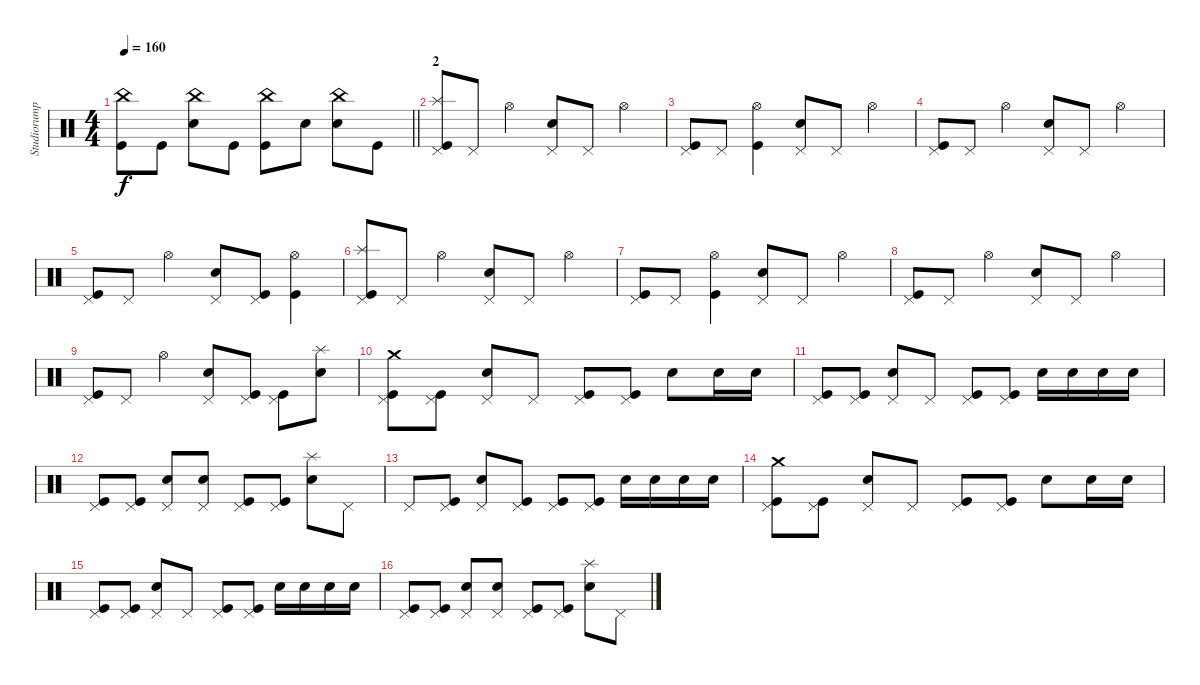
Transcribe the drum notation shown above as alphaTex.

\track ("Studiorumpali" "Studiorump") {instrument percussion}
\staff {score}
\articulation defaults
\ts (4 4)
\tempo 160
\clef neutral
\barLineRight lightlight
\ks c
("China (hit)" "Kick (hit)").8{dy f} "Kick (hit)".8 ("China (hit)" "Snare (hit) 2").8 "Kick (hit)".8 ("China (hit)" "Kick (hit)").8 "Snare (hit) 2".8 ("China (hit)" "Snare (hit) 2").8 "Kick (hit)".8 |
\section ("" "2")
("Splash (hit)" "Pedal Hi-Hat (hit)" "Kick (hit)").8 "Pedal Hi-Hat (hit)".8 "Hi-Hat (open)".4 ("Pedal Hi-Hat (hit)" "Snare (hit) 2").8 "Pedal Hi-Hat (hit)".8 "Hi-Hat (open)".4 |
("Pedal Hi-Hat (hit)" "Kick (hit)").8 "Pedal Hi-Hat (hit)".8 ("Hi-Hat (open)" "Kick (hit)").4 ("Pedal Hi-Hat (hit)" "Snare (hit) 2").8 "Pedal Hi-Hat (hit)".8 "Hi-Hat (open)".4 |
("Pedal Hi-Hat (hit)" "Kick (hit)").8 "Pedal Hi-Hat (hit)".8 "Hi-Hat (open)".4 ("Pedal Hi-Hat (hit)" "Snare (hit) 2").8 "Pedal Hi-Hat (hit)".8 "Hi-Hat (open)".4 |
("Pedal Hi-Hat (hit)" "Kick (hit)").8 "Pedal Hi-Hat (hit)".8 "Hi-Hat (open)".4 ("Pedal Hi-Hat (hit)" "Snare (hit) 2").8 ("Pedal Hi-Hat (hit)" "Kick (hit)").8 ("Hi-Hat (open)" "Kick (hit)").4 |
("Splash (hit)" "Pedal Hi-Hat (hit)" "Kick (hit)").8 "Pedal Hi-Hat (hit)".8 "Hi-Hat (open)".4 ("Pedal Hi-Hat (hit)" "Snare (hit) 2").8 "Pedal Hi-Hat (hit)".8 "Hi-Hat (open)".4 |
("Pedal Hi-Hat (hit)" "Kick (hit)").8 "Pedal Hi-Hat (hit)".8 ("Hi-Hat (open)" "Kick (hit)").4 ("Pedal Hi-Hat (hit)" "Snare (hit) 2").8 "Pedal Hi-Hat (hit)".8 "Hi-Hat (open)".4 |
("Pedal Hi-Hat (hit)" "Kick (hit)").8 "Pedal Hi-Hat (hit)".8 "Hi-Hat (open)".4 ("Pedal Hi-Hat (hit)" "Snare (hit) 2").8 "Pedal Hi-Hat (hit)".8 "Hi-Hat (open)".4 |
("Pedal Hi-Hat (hit)" "Kick (hit)").8 "Pedal Hi-Hat (hit)".8 "Hi-Hat (open)".4 ("Pedal Hi-Hat (hit)" "Snare (hit) 2").8 ("Pedal Hi-Hat (hit)" "Kick (hit)").8 ("Pedal Hi-Hat (hit)" "Kick (hit)").8 ("Splash (hit)" "Snare (hit) 2").8 |
("Crash medium (hit)" "Pedal Hi-Hat (hit)" "Kick (hit)").8 ("Pedal Hi-Hat (hit)" "Kick (hit)").8 ("Pedal Hi-Hat (hit)" "Snare (hit) 2").8 "Pedal Hi-Hat (hit)".8 ("Pedal Hi-Hat (hit)" "Kick (hit)").8 ("Pedal Hi-Hat (hit)" "Kick (hit)").8 "Snare (hit) 2".8 "Snare (hit) 2".16 "Snare (hit) 2".16 |
("Pedal Hi-Hat (hit)" "Kick (hit)").8 ("Pedal Hi-Hat (hit)" "Kick (hit)").8 ("Pedal Hi-Hat (hit)" "Snare (hit) 2").8 "Pedal Hi-Hat (hit)".8 ("Pedal Hi-Hat (hit)" "Kick (hit)").8 ("Pedal Hi-Hat (hit)" "Kick (hit)").8 "Snare (hit) 2".16 "Snare (hit) 2".16 "Snare (hit) 2".16 "Snare (hit) 2".16 |
("Pedal Hi-Hat (hit)" "Kick (hit)").8 ("Pedal Hi-Hat (hit)" "Kick (hit)").8 ("Pedal Hi-Hat (hit)" "Snare (hit) 2").8 ("Pedal Hi-Hat (hit)" "Snare (hit) 2").8 ("Pedal Hi-Hat (hit)" "Kick (hit)").8 ("Pedal Hi-Hat (hit)" "Kick (hit)").8 ("Splash (hit)" "Snare (hit) 2").8 "Pedal Hi-Hat (hit)".8 |
"Pedal Hi-Hat (hit)".8 ("Pedal Hi-Hat (hit)" "Kick (hit)").8 ("Pedal Hi-Hat (hit)" "Snare (hit) 2").8 ("Pedal Hi-Hat (hit)" "Kick (hit)").8 ("Pedal Hi-Hat (hit)" "Kick (hit)").8 ("Pedal Hi-Hat (hit)" "Kick (hit)").8 "Snare (hit) 2".16 "Snare (hit) 2".16 "Snare (hit) 2".16 "Snare (hit) 2".16 |
("Crash medium (hit)" "Pedal Hi-Hat (hit)" "Kick (hit)").8 ("Pedal Hi-Hat (hit)" "Kick (hit)").8 ("Pedal Hi-Hat (hit)" "Snare (hit) 2").8 "Pedal Hi-Hat (hit)".8 ("Pedal Hi-Hat (hit)" "Kick (hit)").8 ("Pedal Hi-Hat (hit)" "Kick (hit)").8 "Snare (hit) 2".8 "Snare (hit) 2".16 "Snare (hit) 2".16 |
("Pedal Hi-Hat (hit)" "Kick (hit)").8 ("Pedal Hi-Hat (hit)" "Kick (hit)").8 ("Pedal Hi-Hat (hit)" "Snare (hit) 2").8 "Pedal Hi-Hat (hit)".8 ("Pedal Hi-Hat (hit)" "Kick (hit)").8 ("Pedal Hi-Hat (hit)" "Kick (hit)").8 "Snare (hit) 2".16 "Snare (hit) 2".16 "Snare (hit) 2".16 "Snare (hit) 2".16 |
("Pedal Hi-Hat (hit)" "Kick (hit)").8 ("Pedal Hi-Hat (hit)" "Kick (hit)").8 ("Pedal Hi-Hat (hit)" "Snare (hit) 2").8 ("Pedal Hi-Hat (hit)" "Snare (hit) 2").8 ("Pedal Hi-Hat (hit)" "Kick (hit)").8 ("Pedal Hi-Hat (hit)" "Kick (hit)").8 ("Splash (hit)" "Snare (hit) 2").8 "Pedal Hi-Hat (hit)".8
